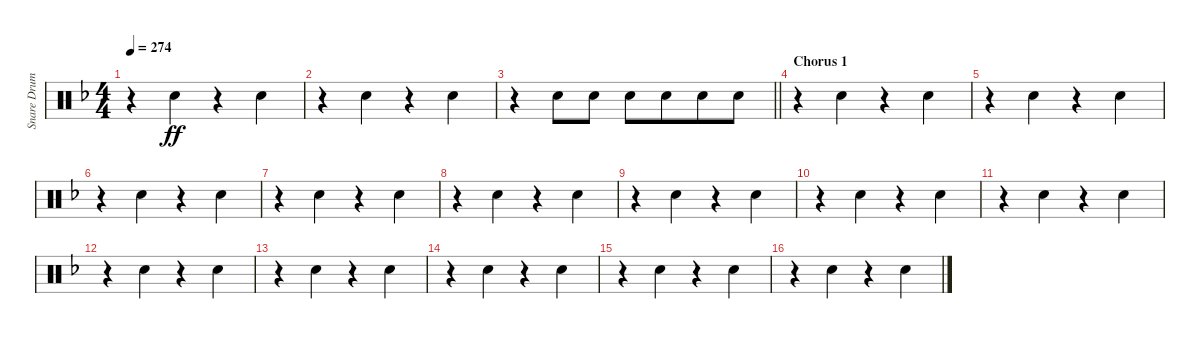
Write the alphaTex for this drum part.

\track ("Snare Drum" "Snare Drum") {instrument percussion}
\staff {score}
\articulation defaults
\ts (4 4)
\tempo 274
\clef neutral
\ks dminor
r.4{dy ff} "Electric Snare (hit)".4 r.4 "Electric Snare (hit)".4 |
r.4 "Electric Snare (hit)".4 r.4 "Electric Snare (hit)".4 |
\barLineRight lightlight
r.4 "Electric Snare (hit)".8 "Electric Snare (hit)".8 "Electric Snare (hit)".8 "Electric Snare (hit)".8{beam merge} "Electric Snare (hit)".8 "Electric Snare (hit)".8 |
\section ("" "Chorus 1")
r.4 "Electric Snare (hit)".4 r.4 "Electric Snare (hit)".4 |
r.4 "Electric Snare (hit)".4 r.4 "Electric Snare (hit)".4 |
r.4 "Electric Snare (hit)".4 r.4 "Electric Snare (hit)".4 |
r.4 "Electric Snare (hit)".4 r.4 "Electric Snare (hit)".4 |
r.4 "Electric Snare (hit)".4 r.4 "Electric Snare (hit)".4 |
r.4 "Electric Snare (hit)".4 r.4 "Electric Snare (hit)".4 |
r.4 "Electric Snare (hit)".4 r.4 "Electric Snare (hit)".4 |
r.4 "Electric Snare (hit)".4 r.4 "Electric Snare (hit)".4 |
r.4 "Electric Snare (hit)".4 r.4 "Electric Snare (hit)".4 |
r.4 "Electric Snare (hit)".4 r.4 "Electric Snare (hit)".4 |
r.4 "Electric Snare (hit)".4 r.4 "Electric Snare (hit)".4 |
r.4 "Electric Snare (hit)".4 r.4 "Electric Snare (hit)".4 |
r.4 "Electric Snare (hit)".4 r.4 "Electric Snare (hit)".4
